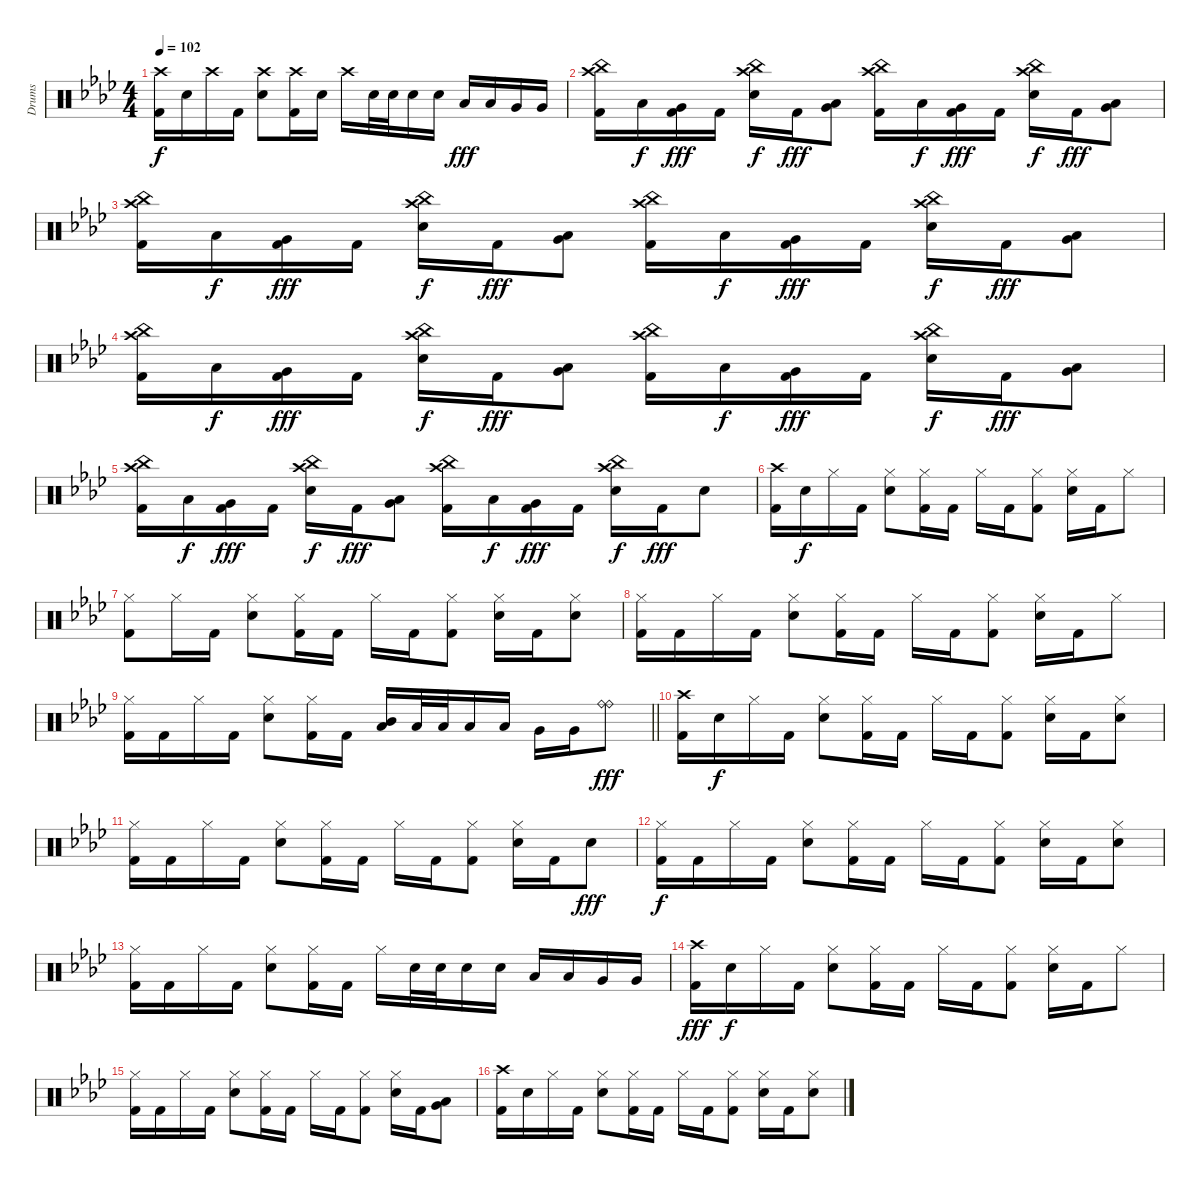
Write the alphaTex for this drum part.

\track ("Drums" "Drums") {instrument percussion}
\staff {score}
\articulation defaults
\ts (4 4)
\tempo 102
\clef neutral
\ks fminor
("Crash high (hit)" "Kick (hit) 2").16{dy f} "Snare (hit) 2".16 "Crash high (hit)".16 "Kick (hit) 2".16 ("Crash high (hit)" "Snare (hit) 2").8 ("Crash high (hit)" "Kick (hit) 2").16 "Snare (hit) 2".16 "Crash high (hit)".16 "Snare (hit) 2".32 "Snare (hit) 2".32 "Snare (hit) 2".16 "Snare (hit) 2".16 "Low Tom (hit)".16{dy fff} "Low Tom (hit)".16 "Very Low Tom (hit)".16 "Very Low Tom (hit)".16 |
("Crash high (hit)" "China (hit)" "Kick (hit) 2").16 "Low Tom (hit)".16{dy f} ("Very Low Tom (hit)" "Kick (hit) 2").16{dy fff} "Kick (hit) 2".16 ("Crash high (hit)" "China (hit)" "Snare (hit) 2").16{dy f} "Kick (hit) 2".16{dy fff} ("Low Tom (hit)" "Very Low Tom (hit)").8 ("Crash high (hit)" "China (hit)" "Kick (hit) 2").16 "Low Tom (hit)".16{dy f} ("Very Low Tom (hit)" "Kick (hit) 2").16{dy fff} "Kick (hit) 2".16 ("Crash high (hit)" "China (hit)" "Snare (hit) 2").16{dy f} "Kick (hit) 2".16{dy fff} ("Low Tom (hit)" "Very Low Tom (hit)").8 |
("Crash high (hit)" "China (hit)" "Kick (hit) 2").16 "Low Tom (hit)".16{dy f} ("Very Low Tom (hit)" "Kick (hit) 2").16{dy fff} "Kick (hit) 2".16 ("Crash high (hit)" "China (hit)" "Snare (hit) 2").16{dy f} "Kick (hit) 2".16{dy fff} ("Low Tom (hit)" "Very Low Tom (hit)").8 ("Crash high (hit)" "China (hit)" "Kick (hit) 2").16 "Low Tom (hit)".16{dy f} ("Very Low Tom (hit)" "Kick (hit) 2").16{dy fff} "Kick (hit) 2".16 ("Crash high (hit)" "China (hit)" "Snare (hit) 2").16{dy f} "Kick (hit) 2".16{dy fff} ("Low Tom (hit)" "Very Low Tom (hit)").8 |
("Crash high (hit)" "China (hit)" "Kick (hit) 2").16 "Low Tom (hit)".16{dy f} ("Very Low Tom (hit)" "Kick (hit) 2").16{dy fff} "Kick (hit) 2".16 ("Crash high (hit)" "China (hit)" "Snare (hit) 2").16{dy f} "Kick (hit) 2".16{dy fff} ("Low Tom (hit)" "Very Low Tom (hit)").8 ("Crash high (hit)" "China (hit)" "Kick (hit) 2").16 "Low Tom (hit)".16{dy f} ("Very Low Tom (hit)" "Kick (hit) 2").16{dy fff} "Kick (hit) 2".16 ("Crash high (hit)" "China (hit)" "Snare (hit) 2").16{dy f} "Kick (hit) 2".16{dy fff} ("Low Tom (hit)" "Very Low Tom (hit)").8 |
("Crash high (hit)" "China (hit)" "Kick (hit) 2").16 "Low Tom (hit)".16{dy f} ("Very Low Tom (hit)" "Kick (hit) 2").16{dy fff} "Kick (hit) 2".16 ("Crash high (hit)" "China (hit)" "Snare (hit) 2").16{dy f} "Kick (hit) 2".16{dy fff} ("Low Tom (hit)" "Very Low Tom (hit)").8 ("Crash high (hit)" "China (hit)" "Kick (hit) 2").16 "Low Tom (hit)".16{dy f} ("Very Low Tom (hit)" "Kick (hit) 2").16{dy fff} "Kick (hit) 2".16 ("Crash high (hit)" "China (hit)" "Snare (hit) 2").16{dy f} "Kick (hit) 2".16{dy fff} "Snare (hit) 2".8 |
("Crash high (hit)" "Kick (hit) 2").16 "Snare (hit) 2".16{dy f} "Hi-Hat (closed)".16 "Kick (hit) 2".16 ("Hi-Hat (closed)" "Snare (hit) 2").8 ("Hi-Hat (closed)" "Kick (hit) 2").16 "Kick (hit) 2".16 "Hi-Hat (closed)".16 "Kick (hit) 2".16 ("Hi-Hat (closed)" "Kick (hit) 2").8 ("Hi-Hat (closed)" "Snare (hit) 2").16 "Kick (hit) 2".16 "Hi-Hat (closed)".8 |
("Hi-Hat (closed)" "Kick (hit) 2").8 "Hi-Hat (closed)".16 "Kick (hit) 2".16 ("Hi-Hat (closed)" "Snare (hit) 2").8 ("Hi-Hat (closed)" "Kick (hit) 2").16 "Kick (hit) 2".16 "Hi-Hat (closed)".16 "Kick (hit) 2".16 ("Hi-Hat (closed)" "Kick (hit) 2").8 ("Hi-Hat (closed)" "Snare (hit) 2").16 "Kick (hit) 2".16 ("Hi-Hat (closed)" "Snare (hit) 2").8 |
("Hi-Hat (closed)" "Kick (hit) 2").16 "Kick (hit) 2".16 "Hi-Hat (closed)".16 "Kick (hit) 2".16 ("Hi-Hat (closed)" "Snare (hit) 2").8 ("Hi-Hat (closed)" "Kick (hit) 2").16 "Kick (hit) 2".16 "Hi-Hat (closed)".16 "Kick (hit) 2".16 ("Hi-Hat (closed)" "Kick (hit) 2").8 ("Hi-Hat (closed)" "Snare (hit) 2").16 "Kick (hit) 2".16 "Hi-Hat (closed)".8 |
\barLineRight lightlight
("Hi-Hat (closed)" "Kick (hit) 2").16 "Kick (hit) 2".16 "Hi-Hat (closed)".16 "Kick (hit) 2".16 ("Hi-Hat (closed)" "Snare (hit) 2").8 ("Hi-Hat (closed)" "Kick (hit) 2").16 "Kick (hit) 2".16 ("Mid Tom (hit)" "Low Tom (hit)").16 "Low Tom (hit)".32 "Low Tom (hit)".32 "Low Tom (hit)".16 "Low Tom (hit)".16 "Very Low Tom (hit)".16 "Very Low Tom (hit)".16 ("Ride (bell)" "Ride (bell)").8{dy fff} |
("Crash high (hit)" "Kick (hit) 2").16 "Snare (hit) 2".16{dy f} "Hi-Hat (closed)".16 "Kick (hit) 2".16 ("Hi-Hat (closed)" "Snare (hit) 2").8 ("Hi-Hat (closed)" "Kick (hit) 2").16 "Kick (hit) 2".16 "Hi-Hat (closed)".16 "Kick (hit) 2".16 ("Hi-Hat (closed)" "Kick (hit) 2").8 ("Hi-Hat (closed)" "Snare (hit) 2").16 "Kick (hit) 2".16 ("Hi-Hat (closed)" "Snare (hit) 2").8 |
("Hi-Hat (closed)" "Kick (hit) 2").16 "Kick (hit) 2".16 "Hi-Hat (closed)".16 "Kick (hit) 2".16 ("Hi-Hat (closed)" "Snare (hit) 2").8 ("Hi-Hat (closed)" "Kick (hit) 2").16 "Kick (hit) 2".16 "Hi-Hat (closed)".16 "Kick (hit) 2".16 ("Hi-Hat (closed)" "Kick (hit) 2").8 ("Hi-Hat (closed)" "Snare (hit) 2").16 "Kick (hit) 2".16 "Snare (hit) 2".8{dy fff} |
("Hi-Hat (closed)" "Kick (hit) 2").16{dy f} "Kick (hit) 2".16 "Hi-Hat (closed)".16 "Kick (hit) 2".16 ("Hi-Hat (closed)" "Snare (hit) 2").8 ("Hi-Hat (closed)" "Kick (hit) 2").16 "Kick (hit) 2".16 "Hi-Hat (closed)".16 "Kick (hit) 2".16 ("Hi-Hat (closed)" "Kick (hit) 2").8 ("Hi-Hat (closed)" "Snare (hit) 2").16 "Kick (hit) 2".16 ("Hi-Hat (closed)" "Snare (hit) 2").8 |
("Hi-Hat (closed)" "Kick (hit) 2").16 "Kick (hit) 2".16 "Hi-Hat (closed)".16 "Kick (hit) 2".16 ("Hi-Hat (closed)" "Snare (hit) 2").8 ("Hi-Hat (closed)" "Kick (hit) 2").16 "Kick (hit) 2".16 "Hi-Hat (closed)".16 "Snare (hit) 2".32 "Snare (hit) 2".32 "Snare (hit) 2".16 "Snare (hit) 2".16 "Low Tom (hit)".16 "Low Tom (hit)".16 "Very Low Tom (hit)".16 "Very Low Tom (hit)".16 |
("Crash high (hit)" "Kick (hit) 2").16{dy fff} "Snare (hit) 2".16{dy f} "Hi-Hat (closed)".16 "Kick (hit) 2".16 ("Hi-Hat (closed)" "Snare (hit) 2").8 ("Hi-Hat (closed)" "Kick (hit) 2").16 "Kick (hit) 2".16 "Hi-Hat (closed)".16 "Kick (hit) 2".16 ("Hi-Hat (closed)" "Kick (hit) 2").8 ("Hi-Hat (closed)" "Snare (hit) 2").16 "Kick (hit) 2".16 "Hi-Hat (closed)".8 |
("Hi-Hat (closed)" "Kick (hit) 2").16 "Kick (hit) 2".16 "Hi-Hat (closed)".16 "Kick (hit) 2".16 ("Hi-Hat (closed)" "Snare (hit) 2").8 ("Hi-Hat (closed)" "Kick (hit) 2").16 "Kick (hit) 2".16 "Hi-Hat (closed)".16 "Kick (hit) 2".16 ("Hi-Hat (closed)" "Kick (hit) 2").8 ("Hi-Hat (closed)" "Snare (hit) 2").16 "Kick (hit) 2".16 ("Low Tom (hit)" "Very Low Tom (hit)").8 |
("Crash high (hit)" "Kick (hit) 2").16 "Snare (hit) 2".16 "Hi-Hat (closed)".16 "Kick (hit) 2".16 ("Hi-Hat (closed)" "Snare (hit) 2").8 ("Hi-Hat (closed)" "Kick (hit) 2").16 "Kick (hit) 2".16 "Hi-Hat (closed)".16 "Kick (hit) 2".16 ("Hi-Hat (closed)" "Kick (hit) 2").8 ("Hi-Hat (closed)" "Snare (hit) 2").16 "Kick (hit) 2".16 ("Hi-Hat (closed)" "Snare (hit) 2").8
